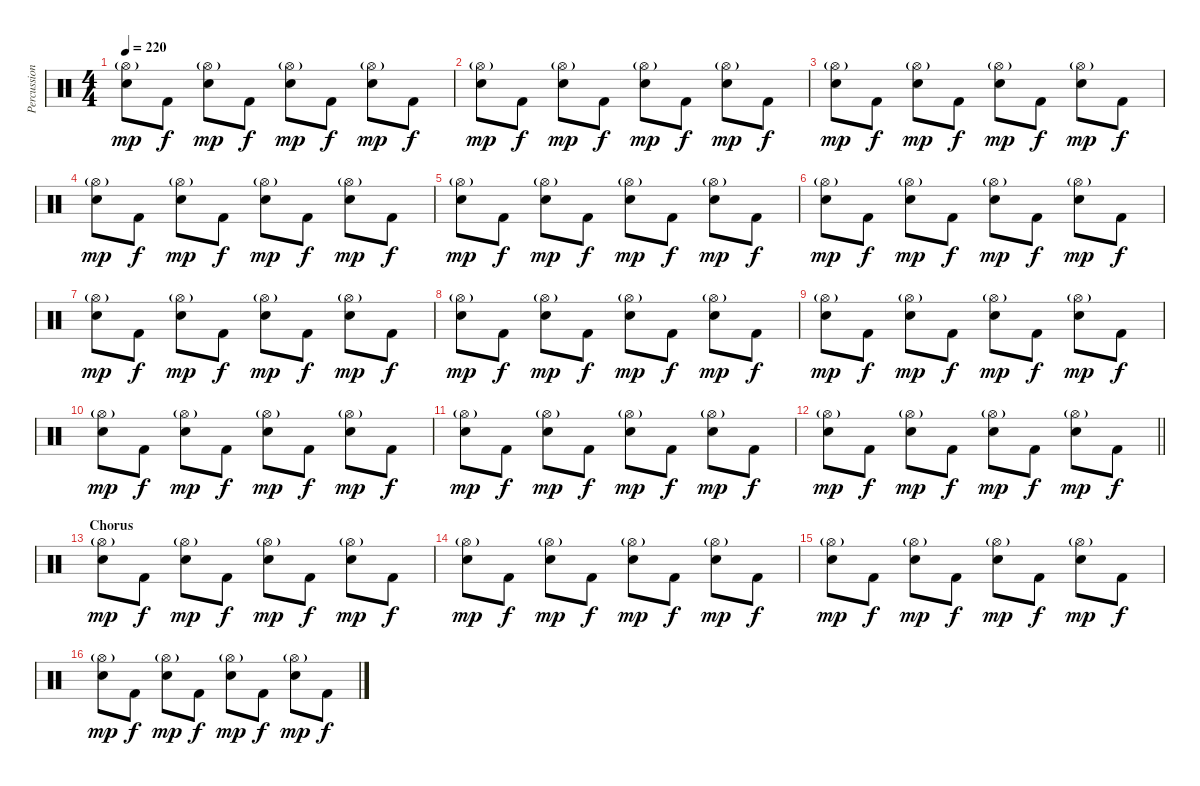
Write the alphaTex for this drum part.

\track ("Percussions" "Percussion") {instrument percussion}
\staff {score}
\articulation defaults
\ts (4 4)
\tempo 220
\clef neutral
\ks c
("Hi-Hat (open)"{g} "Electric Snare (hit)").8{dy mp} "Kick (hit) 2".8{dy f} ("Hi-Hat (open)"{g} "Electric Snare (hit)").8{dy mp} "Kick (hit) 2".8{dy f} ("Hi-Hat (open)"{g} "Electric Snare (hit)").8{dy mp} "Kick (hit) 2".8{dy f} ("Hi-Hat (open)"{g} "Electric Snare (hit)").8{dy mp} "Kick (hit) 2".8{dy f} |
("Hi-Hat (open)"{g} "Electric Snare (hit)").8{dy mp} "Kick (hit) 2".8{dy f} ("Hi-Hat (open)"{g} "Electric Snare (hit)").8{dy mp} "Kick (hit) 2".8{dy f} ("Hi-Hat (open)"{g} "Electric Snare (hit)").8{dy mp} "Kick (hit) 2".8{dy f} ("Hi-Hat (open)"{g} "Electric Snare (hit)").8{dy mp} "Kick (hit) 2".8{dy f} |
("Hi-Hat (open)"{g} "Electric Snare (hit)").8{dy mp} "Kick (hit) 2".8{dy f} ("Hi-Hat (open)"{g} "Electric Snare (hit)").8{dy mp} "Kick (hit) 2".8{dy f} ("Hi-Hat (open)"{g} "Electric Snare (hit)").8{dy mp} "Kick (hit) 2".8{dy f} ("Hi-Hat (open)"{g} "Electric Snare (hit)").8{dy mp} "Kick (hit) 2".8{dy f} |
("Hi-Hat (open)"{g} "Electric Snare (hit)").8{dy mp} "Kick (hit) 2".8{dy f} ("Hi-Hat (open)"{g} "Electric Snare (hit)").8{dy mp} "Kick (hit) 2".8{dy f} ("Hi-Hat (open)"{g} "Electric Snare (hit)").8{dy mp} "Kick (hit) 2".8{dy f} ("Hi-Hat (open)"{g} "Electric Snare (hit)").8{dy mp} "Kick (hit) 2".8{dy f} |
("Hi-Hat (open)"{g} "Electric Snare (hit)").8{dy mp} "Kick (hit) 2".8{dy f} ("Hi-Hat (open)"{g} "Electric Snare (hit)").8{dy mp} "Kick (hit) 2".8{dy f} ("Hi-Hat (open)"{g} "Electric Snare (hit)").8{dy mp} "Kick (hit) 2".8{dy f} ("Hi-Hat (open)"{g} "Electric Snare (hit)").8{dy mp} "Kick (hit) 2".8{dy f} |
("Hi-Hat (open)"{g} "Electric Snare (hit)").8{dy mp} "Kick (hit) 2".8{dy f} ("Hi-Hat (open)"{g} "Electric Snare (hit)").8{dy mp} "Kick (hit) 2".8{dy f} ("Hi-Hat (open)"{g} "Electric Snare (hit)").8{dy mp} "Kick (hit) 2".8{dy f} ("Hi-Hat (open)"{g} "Electric Snare (hit)").8{dy mp} "Kick (hit) 2".8{dy f} |
("Hi-Hat (open)"{g} "Electric Snare (hit)").8{dy mp} "Kick (hit) 2".8{dy f} ("Hi-Hat (open)"{g} "Electric Snare (hit)").8{dy mp} "Kick (hit) 2".8{dy f} ("Hi-Hat (open)"{g} "Electric Snare (hit)").8{dy mp} "Kick (hit) 2".8{dy f} ("Hi-Hat (open)"{g} "Electric Snare (hit)").8{dy mp} "Kick (hit) 2".8{dy f} |
("Hi-Hat (open)"{g} "Electric Snare (hit)").8{dy mp} "Kick (hit) 2".8{dy f} ("Hi-Hat (open)"{g} "Electric Snare (hit)").8{dy mp} "Kick (hit) 2".8{dy f} ("Hi-Hat (open)"{g} "Electric Snare (hit)").8{dy mp} "Kick (hit) 2".8{dy f} ("Hi-Hat (open)"{g} "Electric Snare (hit)").8{dy mp} "Kick (hit) 2".8{dy f} |
("Hi-Hat (open)"{g} "Electric Snare (hit)").8{dy mp} "Kick (hit) 2".8{dy f} ("Hi-Hat (open)"{g} "Electric Snare (hit)").8{dy mp} "Kick (hit) 2".8{dy f} ("Hi-Hat (open)"{g} "Electric Snare (hit)").8{dy mp} "Kick (hit) 2".8{dy f} ("Hi-Hat (open)"{g} "Electric Snare (hit)").8{dy mp} "Kick (hit) 2".8{dy f} |
("Hi-Hat (open)"{g} "Electric Snare (hit)").8{dy mp} "Kick (hit) 2".8{dy f} ("Hi-Hat (open)"{g} "Electric Snare (hit)").8{dy mp} "Kick (hit) 2".8{dy f} ("Hi-Hat (open)"{g} "Electric Snare (hit)").8{dy mp} "Kick (hit) 2".8{dy f} ("Hi-Hat (open)"{g} "Electric Snare (hit)").8{dy mp} "Kick (hit) 2".8{dy f} |
("Hi-Hat (open)"{g} "Electric Snare (hit)").8{dy mp} "Kick (hit) 2".8{dy f} ("Hi-Hat (open)"{g} "Electric Snare (hit)").8{dy mp} "Kick (hit) 2".8{dy f} ("Hi-Hat (open)"{g} "Electric Snare (hit)").8{dy mp} "Kick (hit) 2".8{dy f} ("Hi-Hat (open)"{g} "Electric Snare (hit)").8{dy mp} "Kick (hit) 2".8{dy f} |
\barLineRight lightlight
("Hi-Hat (open)"{g} "Electric Snare (hit)").8{dy mp} "Kick (hit) 2".8{dy f} ("Hi-Hat (open)"{g} "Electric Snare (hit)").8{dy mp} "Kick (hit) 2".8{dy f} ("Hi-Hat (open)"{g} "Electric Snare (hit)").8{dy mp} "Kick (hit) 2".8{dy f} ("Hi-Hat (open)"{g} "Electric Snare (hit)").8{dy mp} "Kick (hit) 2".8{dy f} |
\section ("" "Chorus")
("Hi-Hat (open)"{g} "Electric Snare (hit)").8{dy mp} "Kick (hit) 2".8{dy f} ("Hi-Hat (open)"{g} "Electric Snare (hit)").8{dy mp} "Kick (hit) 2".8{dy f} ("Hi-Hat (open)"{g} "Electric Snare (hit)").8{dy mp} "Kick (hit) 2".8{dy f} ("Hi-Hat (open)"{g} "Electric Snare (hit)").8{dy mp} "Kick (hit) 2".8{dy f} |
("Hi-Hat (open)"{g} "Electric Snare (hit)").8{dy mp} "Kick (hit) 2".8{dy f} ("Hi-Hat (open)"{g} "Electric Snare (hit)").8{dy mp} "Kick (hit) 2".8{dy f} ("Hi-Hat (open)"{g} "Electric Snare (hit)").8{dy mp} "Kick (hit) 2".8{dy f} ("Hi-Hat (open)"{g} "Electric Snare (hit)").8{dy mp} "Kick (hit) 2".8{dy f} |
("Hi-Hat (open)"{g} "Electric Snare (hit)").8{dy mp} "Kick (hit) 2".8{dy f} ("Hi-Hat (open)"{g} "Electric Snare (hit)").8{dy mp} "Kick (hit) 2".8{dy f} ("Hi-Hat (open)"{g} "Electric Snare (hit)").8{dy mp} "Kick (hit) 2".8{dy f} ("Hi-Hat (open)"{g} "Electric Snare (hit)").8{dy mp} "Kick (hit) 2".8{dy f} |
("Hi-Hat (open)"{g} "Electric Snare (hit)").8{dy mp} "Kick (hit) 2".8{dy f} ("Hi-Hat (open)"{g} "Electric Snare (hit)").8{dy mp} "Kick (hit) 2".8{dy f} ("Hi-Hat (open)"{g} "Electric Snare (hit)").8{dy mp} "Kick (hit) 2".8{dy f} ("Hi-Hat (open)"{g} "Electric Snare (hit)").8{dy mp} "Kick (hit) 2".8{dy f}
